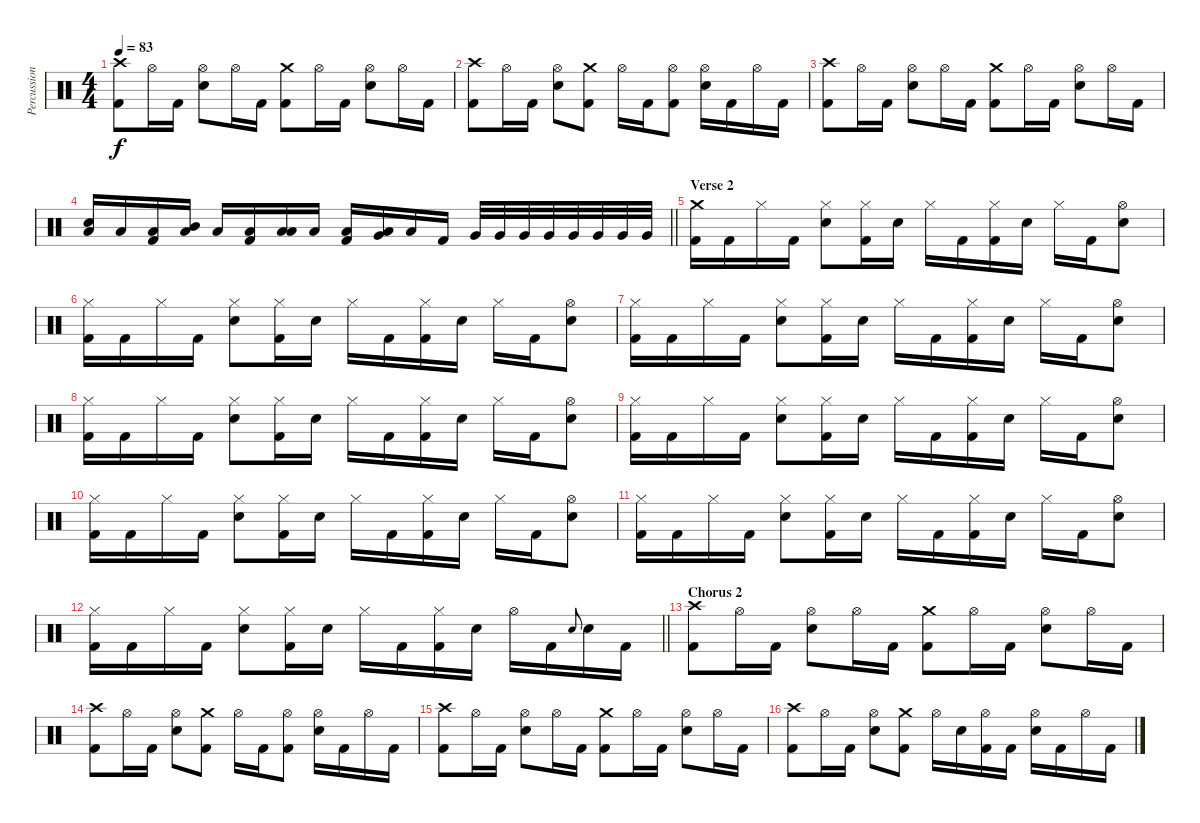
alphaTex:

\track ("Percussion" "Percussion") {instrument percussion}
\staff {score}
\articulation defaults
\ts (4 4)
\tempo 83
\clef neutral
\ks c
("Crash high (hit)" "Kick (hit) 2").8{dy f} "Hi-Hat (open)".16 "Kick (hit) 2".16 ("Hi-Hat (open)" "Electric Snare (hit)").8 "Hi-Hat (open)".16 "Kick (hit) 2".16 ("Crash medium (hit)" "Kick (hit) 2").8 "Hi-Hat (open)".16 "Kick (hit) 2".16 ("Hi-Hat (open)" "Electric Snare (hit)").8 "Hi-Hat (open)".16 "Kick (hit) 2".16 |
("Crash high (hit)" "Kick (hit) 2").8 "Hi-Hat (open)".16 "Kick (hit) 2".16 ("Hi-Hat (open)" "Electric Snare (hit)").8 ("Crash medium (hit)" "Kick (hit) 2").8 "Hi-Hat (open)".16 "Kick (hit) 2".16 ("Hi-Hat (open)" "Kick (hit) 2").8 ("Hi-Hat (open)" "Electric Snare (hit)").16 "Kick (hit) 2".16 "Hi-Hat (open)".16 "Kick (hit) 2".16 |
("Crash high (hit)" "Kick (hit) 2").8 "Hi-Hat (open)".16 "Kick (hit) 2".16 ("Hi-Hat (open)" "Electric Snare (hit)").8 "Hi-Hat (open)".16 "Kick (hit) 2".16 ("Crash medium (hit)" "Kick (hit) 2").8 "Hi-Hat (open)".16 "Kick (hit) 2".16 ("Hi-Hat (open)" "Electric Snare (hit)").8 "Hi-Hat (open)".16 "Kick (hit) 2".16 |
\barLineRight lightlight
("Electric Snare (hit)" "Low Floor Tom (hit)").16 "Low Floor Tom (hit)".16 ("Low Floor Tom (hit)" "Kick (hit) 2").16 ("Mid Tom (hit)" "Low Floor Tom (hit)").16 "Low Floor Tom (hit)".16 ("Low Floor Tom (hit)" "Kick (hit) 2").16 ("Low Tom (hit)" "Low Floor Tom (hit)").16 "Low Floor Tom (hit)".16 ("Low Floor Tom (hit)" "Kick (hit) 2").16 ("Very Low Tom (hit)" "Low Floor Tom (hit)").16 "Low Floor Tom (hit)".16 "Kick (hit) 2".16 "Very Low Tom (hit)".32 "Very Low Tom (hit)".32 "Very Low Tom (hit)".32 "Very Low Tom (hit)".32 "Very Low Tom (hit)".32 "Very Low Tom (hit)".32 "Very Low Tom (hit)".32 "Very Low Tom (hit)".32 |
\section ("" "Verse 2")
("Crash medium (hit)" "Kick (hit) 2").16 "Kick (hit) 2".16 "Hi-Hat (closed)".16 "Kick (hit) 2".16 ("Hi-Hat (closed)" "Electric Snare (hit)").8 ("Hi-Hat (closed)" "Kick (hit) 2").16 "Electric Snare (hit)".16 "Hi-Hat (closed)".16 "Kick (hit) 2".16 ("Hi-Hat (closed)" "Kick (hit) 2").16 "Electric Snare (hit)".16 "Hi-Hat (closed)".16 "Kick (hit) 2".16 ("Hi-Hat (open)" "Electric Snare (hit)").8 |
("Hi-Hat (closed)" "Kick (hit) 2").16 "Kick (hit) 2".16 "Hi-Hat (closed)".16 "Kick (hit) 2".16 ("Hi-Hat (closed)" "Electric Snare (hit)").8 ("Hi-Hat (closed)" "Kick (hit) 2").16 "Electric Snare (hit)".16 "Hi-Hat (closed)".16 "Kick (hit) 2".16 ("Hi-Hat (closed)" "Kick (hit) 2").16 "Electric Snare (hit)".16 "Hi-Hat (closed)".16 "Kick (hit) 2".16 ("Hi-Hat (open)" "Electric Snare (hit)").8 |
("Hi-Hat (closed)" "Kick (hit) 2").16 "Kick (hit) 2".16 "Hi-Hat (closed)".16 "Kick (hit) 2".16 ("Hi-Hat (closed)" "Electric Snare (hit)").8 ("Hi-Hat (closed)" "Kick (hit) 2").16 "Electric Snare (hit)".16 "Hi-Hat (closed)".16 "Kick (hit) 2".16 ("Hi-Hat (closed)" "Kick (hit) 2").16 "Electric Snare (hit)".16 "Hi-Hat (closed)".16 "Kick (hit) 2".16 ("Hi-Hat (open)" "Electric Snare (hit)").8 |
("Hi-Hat (closed)" "Kick (hit) 2").16 "Kick (hit) 2".16 "Hi-Hat (closed)".16 "Kick (hit) 2".16 ("Hi-Hat (closed)" "Electric Snare (hit)").8 ("Hi-Hat (closed)" "Kick (hit) 2").16 "Electric Snare (hit)".16 "Hi-Hat (closed)".16 "Kick (hit) 2".16 ("Hi-Hat (closed)" "Kick (hit) 2").16 "Electric Snare (hit)".16 "Hi-Hat (closed)".16 "Kick (hit) 2".16 ("Hi-Hat (open)" "Electric Snare (hit)").8 |
("Hi-Hat (closed)" "Kick (hit) 2").16 "Kick (hit) 2".16 "Hi-Hat (closed)".16 "Kick (hit) 2".16 ("Hi-Hat (closed)" "Electric Snare (hit)").8 ("Hi-Hat (closed)" "Kick (hit) 2").16 "Electric Snare (hit)".16 "Hi-Hat (closed)".16 "Kick (hit) 2".16 ("Hi-Hat (closed)" "Kick (hit) 2").16 "Electric Snare (hit)".16 "Hi-Hat (closed)".16 "Kick (hit) 2".16 ("Hi-Hat (open)" "Electric Snare (hit)").8 |
("Hi-Hat (closed)" "Kick (hit) 2").16 "Kick (hit) 2".16 "Hi-Hat (closed)".16 "Kick (hit) 2".16 ("Hi-Hat (closed)" "Electric Snare (hit)").8 ("Hi-Hat (closed)" "Kick (hit) 2").16 "Electric Snare (hit)".16 "Hi-Hat (closed)".16 "Kick (hit) 2".16 ("Hi-Hat (closed)" "Kick (hit) 2").16 "Electric Snare (hit)".16 "Hi-Hat (closed)".16 "Kick (hit) 2".16 ("Hi-Hat (open)" "Electric Snare (hit)").8 |
("Hi-Hat (closed)" "Kick (hit) 2").16 "Kick (hit) 2".16 "Hi-Hat (closed)".16 "Kick (hit) 2".16 ("Hi-Hat (closed)" "Electric Snare (hit)").8 ("Hi-Hat (closed)" "Kick (hit) 2").16 "Electric Snare (hit)".16 "Hi-Hat (closed)".16 "Kick (hit) 2".16 ("Hi-Hat (closed)" "Kick (hit) 2").16 "Electric Snare (hit)".16 "Hi-Hat (closed)".16 "Kick (hit) 2".16 ("Hi-Hat (open)" "Electric Snare (hit)").8 |
\barLineRight lightlight
("Hi-Hat (closed)" "Kick (hit) 2").16 "Kick (hit) 2".16 "Hi-Hat (closed)".16 "Kick (hit) 2".16 ("Hi-Hat (closed)" "Electric Snare (hit)").8 ("Hi-Hat (closed)" "Kick (hit) 2").16 "Electric Snare (hit)".16 "Hi-Hat (closed)".16 "Kick (hit) 2".16 ("Hi-Hat (closed)" "Kick (hit) 2").16 "Electric Snare (hit)".16 "Hi-Hat (open)".16 "Kick (hit) 2".16 "Electric Snare (hit)".8{gr onbeat} "Electric Snare (hit)".16 "Kick (hit) 2".16 |
\section ("" "Chorus 2")
("Crash high (hit)" "Kick (hit) 2").8 "Hi-Hat (open)".16 "Kick (hit) 2".16 ("Hi-Hat (open)" "Electric Snare (hit)").8 "Hi-Hat (open)".16 "Kick (hit) 2".16 ("Crash medium (hit)" "Kick (hit) 2").8 "Hi-Hat (open)".16 "Kick (hit) 2".16 ("Hi-Hat (open)" "Electric Snare (hit)").8 "Hi-Hat (open)".16 "Kick (hit) 2".16 |
("Crash high (hit)" "Kick (hit) 2").8 "Hi-Hat (open)".16 "Kick (hit) 2".16 ("Hi-Hat (open)" "Electric Snare (hit)").8 ("Crash medium (hit)" "Kick (hit) 2").8 "Hi-Hat (open)".16 "Kick (hit) 2".16 ("Hi-Hat (open)" "Kick (hit) 2").8 ("Hi-Hat (open)" "Electric Snare (hit)").16 "Kick (hit) 2".16 "Hi-Hat (open)".16 "Kick (hit) 2".16 |
("Crash high (hit)" "Kick (hit) 2").8 "Hi-Hat (open)".16 "Kick (hit) 2".16 ("Hi-Hat (open)" "Electric Snare (hit)").8 "Hi-Hat (open)".16 "Kick (hit) 2".16 ("Crash medium (hit)" "Kick (hit) 2").8 "Hi-Hat (open)".16 "Kick (hit) 2".16 ("Hi-Hat (open)" "Electric Snare (hit)").8 "Hi-Hat (open)".16 "Kick (hit) 2".16 |
("Crash high (hit)" "Kick (hit) 2").8 "Hi-Hat (open)".16 "Kick (hit) 2".16 ("Hi-Hat (open)" "Electric Snare (hit)").8 ("Crash medium (hit)" "Kick (hit) 2").8 "Hi-Hat (open)".16 "Electric Snare (hit)".16 ("Hi-Hat (open)" "Kick (hit) 2").16 "Kick (hit) 2".16 ("Hi-Hat (open)" "Electric Snare (hit)").16 "Kick (hit) 2".16 "Hi-Hat (open)".16 "Kick (hit) 2".16
